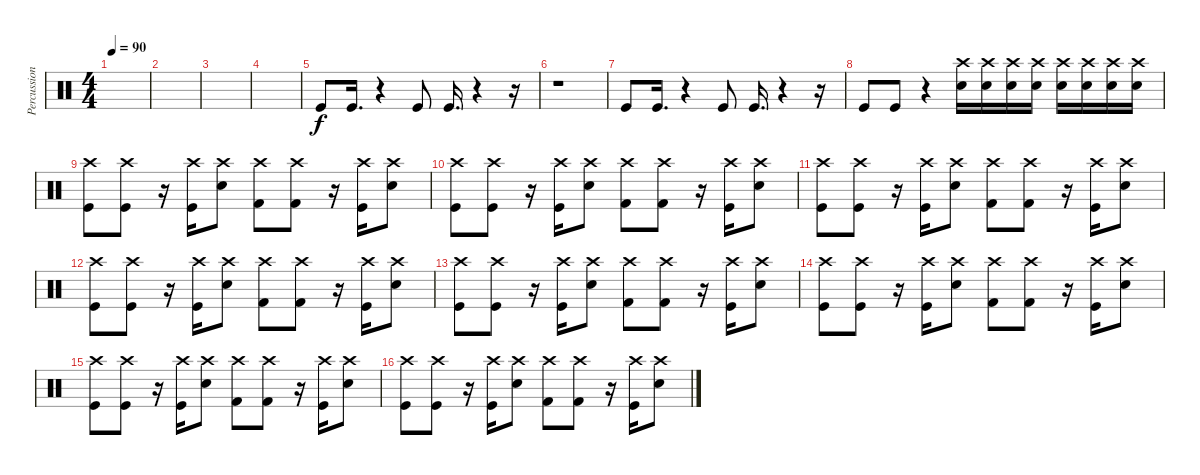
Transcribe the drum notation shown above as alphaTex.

\track ("Percussion courtesy of unknown user" "Percussion") {instrument percussion}
\staff {score}
\articulation defaults
\ts (4 4)
\tempo 90
\clef neutral
\ks c
|
|
|
|
"Kick (hit)".8 "Kick (hit)".16{d} r.4 "Kick (hit)".8 "Kick (hit)".16{d} r.4 r.16 |
r.1 |
"Kick (hit)".8 "Kick (hit)".16{d} r.4 "Kick (hit)".8 "Kick (hit)".16{d} r.4 r.16 |
"Kick (hit)".8 "Kick (hit)".8 r.4 ("Crash high (hit)" "Snare (hit) 2").16 ("Crash high (hit)" "Snare (hit) 2").16 ("Crash high (hit)" "Snare (hit) 2").16 ("Crash high (hit)" "Snare (hit) 2").16 ("Crash high (hit)" "Snare (hit) 2").16 ("Crash high (hit)" "Snare (hit) 2").16 ("Crash high (hit)" "Snare (hit) 2").16 ("Crash high (hit)" "Snare (hit) 2").16 |
("Crash high (hit)" "Kick (hit)").8 ("Crash high (hit)" "Kick (hit)").8 r.16 ("Crash high (hit)" "Kick (hit)").16 ("Crash high (hit)" "Snare (hit) 2").8 ("Crash high (hit)" "Kick (hit) 2").8 ("Crash high (hit)" "Kick (hit) 2").8 r.16 ("Crash high (hit)" "Kick (hit)").16 ("Crash high (hit)" "Snare (hit) 2").8 |
("Crash high (hit)" "Kick (hit)").8 ("Crash high (hit)" "Kick (hit)").8 r.16 ("Crash high (hit)" "Kick (hit)").16 ("Crash high (hit)" "Snare (hit) 2").8 ("Crash high (hit)" "Kick (hit) 2").8 ("Crash high (hit)" "Kick (hit) 2").8 r.16 ("Crash high (hit)" "Kick (hit)").16 ("Crash high (hit)" "Snare (hit) 2").8 |
("Crash high (hit)" "Kick (hit)").8 ("Crash high (hit)" "Kick (hit)").8 r.16 ("Crash high (hit)" "Kick (hit)").16 ("Crash high (hit)" "Snare (hit) 2").8 ("Crash high (hit)" "Kick (hit) 2").8 ("Crash high (hit)" "Kick (hit) 2").8 r.16 ("Crash high (hit)" "Kick (hit)").16 ("Crash high (hit)" "Snare (hit) 2").8 |
("Crash high (hit)" "Kick (hit)").8 ("Crash high (hit)" "Kick (hit)").8 r.16 ("Crash high (hit)" "Kick (hit)").16 ("Crash high (hit)" "Snare (hit) 2").8 ("Crash high (hit)" "Kick (hit) 2").8 ("Crash high (hit)" "Kick (hit) 2").8 r.16 ("Crash high (hit)" "Kick (hit)").16 ("Crash high (hit)" "Snare (hit) 2").8 |
("Crash high (hit)" "Kick (hit)").8 ("Crash high (hit)" "Kick (hit)").8 r.16 ("Crash high (hit)" "Kick (hit)").16 ("Crash high (hit)" "Snare (hit) 2").8 ("Crash high (hit)" "Kick (hit) 2").8 ("Crash high (hit)" "Kick (hit) 2").8 r.16 ("Crash high (hit)" "Kick (hit)").16 ("Crash high (hit)" "Snare (hit) 2").8 |
("Crash high (hit)" "Kick (hit)").8 ("Crash high (hit)" "Kick (hit)").8 r.16 ("Crash high (hit)" "Kick (hit)").16 ("Crash high (hit)" "Snare (hit) 2").8 ("Crash high (hit)" "Kick (hit) 2").8 ("Crash high (hit)" "Kick (hit) 2").8 r.16 ("Crash high (hit)" "Kick (hit)").16 ("Crash high (hit)" "Snare (hit) 2").8 |
("Crash high (hit)" "Kick (hit)").8 ("Crash high (hit)" "Kick (hit)").8 r.16 ("Crash high (hit)" "Kick (hit)").16 ("Crash high (hit)" "Snare (hit) 2").8 ("Crash high (hit)" "Kick (hit) 2").8 ("Crash high (hit)" "Kick (hit) 2").8 r.16 ("Crash high (hit)" "Kick (hit)").16 ("Crash high (hit)" "Snare (hit) 2").8 |
("Crash high (hit)" "Kick (hit)").8 ("Crash high (hit)" "Kick (hit)").8 r.16 ("Crash high (hit)" "Kick (hit)").16 ("Crash high (hit)" "Snare (hit) 2").8 ("Crash high (hit)" "Kick (hit) 2").8 ("Crash high (hit)" "Kick (hit) 2").8 r.16 ("Crash high (hit)" "Kick (hit)").16 ("Crash high (hit)" "Snare (hit) 2").8
